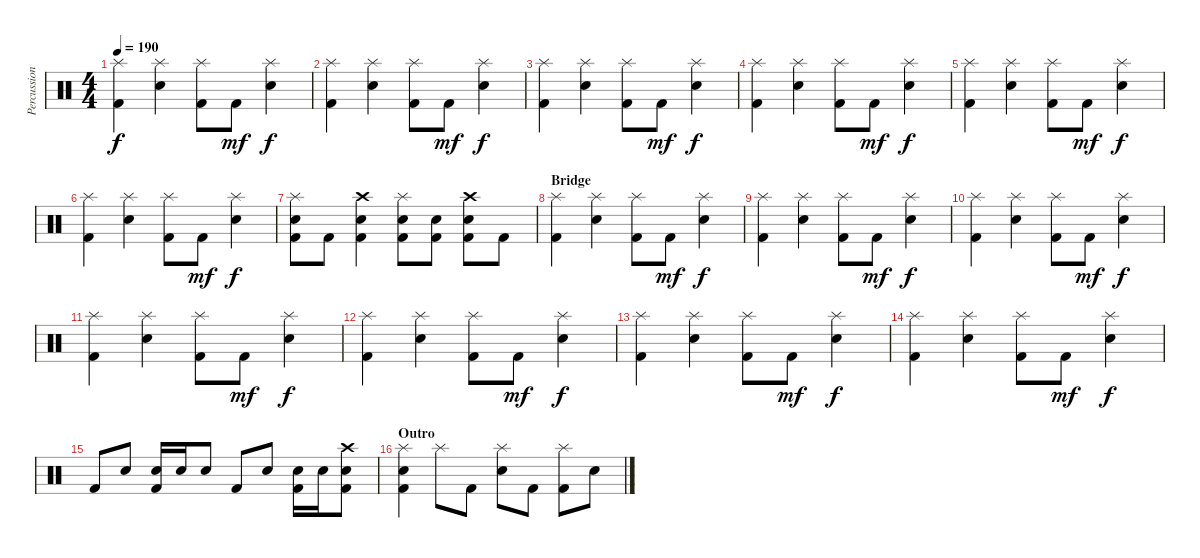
\track ("Percussion" "Percussion") {instrument percussion}
\staff {score}
\articulation defaults
\ts (4 4)
\tempo 190
\clef neutral
\ks c
("Splash (hit)" "Kick (hit) 2").4{dy f} ("Splash (hit)" "Electric Snare (hit)").4 ("Splash (hit)" "Kick (hit) 2").8 "Kick (hit) 2".8{dy mf} ("Splash (hit)" "Electric Snare (hit)").4{dy f} |
("Splash (hit)" "Kick (hit) 2").4 ("Splash (hit)" "Electric Snare (hit)").4 ("Splash (hit)" "Kick (hit) 2").8 "Kick (hit) 2".8{dy mf} ("Splash (hit)" "Electric Snare (hit)").4{dy f} |
("Splash (hit)" "Kick (hit) 2").4 ("Splash (hit)" "Electric Snare (hit)").4 ("Splash (hit)" "Kick (hit) 2").8 "Kick (hit) 2".8{dy mf} ("Splash (hit)" "Electric Snare (hit)").4{dy f} |
("Splash (hit)" "Kick (hit) 2").4 ("Splash (hit)" "Electric Snare (hit)").4 ("Splash (hit)" "Kick (hit) 2").8 "Kick (hit) 2".8{dy mf} ("Splash (hit)" "Electric Snare (hit)").4{dy f} |
("Splash (hit)" "Kick (hit) 2").4 ("Splash (hit)" "Electric Snare (hit)").4 ("Splash (hit)" "Kick (hit) 2").8 "Kick (hit) 2".8{dy mf} ("Splash (hit)" "Electric Snare (hit)").4{dy f} |
("Splash (hit)" "Kick (hit) 2").4 ("Splash (hit)" "Electric Snare (hit)").4 ("Splash (hit)" "Kick (hit) 2").8 "Kick (hit) 2".8{dy mf} ("Splash (hit)" "Electric Snare (hit)").4{dy f} |
("Splash (hit)" "Electric Snare (hit)" "Kick (hit) 2").8 "Kick (hit) 2".8 ("Crash high (hit)" "Electric Snare (hit)" "Kick (hit) 2").4 ("Splash (hit)" "Electric Snare (hit)" "Kick (hit) 2").8 ("Electric Snare (hit)" "Kick (hit) 2").8 ("Crash high (hit)" "Electric Snare (hit)" "Kick (hit) 2").8 "Kick (hit) 2".8 |
\section ("" "Bridge")
("Splash (hit)" "Kick (hit) 2").4 ("Splash (hit)" "Electric Snare (hit)").4 ("Splash (hit)" "Kick (hit) 2").8 "Kick (hit) 2".8{dy mf} ("Splash (hit)" "Electric Snare (hit)").4{dy f} |
("Splash (hit)" "Kick (hit) 2").4 ("Splash (hit)" "Electric Snare (hit)").4 ("Splash (hit)" "Kick (hit) 2").8 "Kick (hit) 2".8{dy mf} ("Splash (hit)" "Electric Snare (hit)").4{dy f} |
("Splash (hit)" "Kick (hit) 2").4 ("Splash (hit)" "Electric Snare (hit)").4 ("Splash (hit)" "Kick (hit) 2").8 "Kick (hit) 2".8{dy mf} ("Splash (hit)" "Electric Snare (hit)").4{dy f} |
("Splash (hit)" "Kick (hit) 2").4 ("Splash (hit)" "Electric Snare (hit)").4 ("Splash (hit)" "Kick (hit) 2").8 "Kick (hit) 2".8{dy mf} ("Splash (hit)" "Electric Snare (hit)").4{dy f} |
("Splash (hit)" "Kick (hit) 2").4 ("Splash (hit)" "Electric Snare (hit)").4 ("Splash (hit)" "Kick (hit) 2").8 "Kick (hit) 2".8{dy mf} ("Splash (hit)" "Electric Snare (hit)").4{dy f} |
("Splash (hit)" "Kick (hit) 2").4 ("Splash (hit)" "Electric Snare (hit)").4 ("Splash (hit)" "Kick (hit) 2").8 "Kick (hit) 2".8{dy mf} ("Splash (hit)" "Electric Snare (hit)").4{dy f} |
("Splash (hit)" "Kick (hit) 2").4 ("Splash (hit)" "Electric Snare (hit)").4 ("Splash (hit)" "Kick (hit) 2").8 "Kick (hit) 2".8{dy mf} ("Splash (hit)" "Electric Snare (hit)").4{dy f} |
"Kick (hit) 2".8 "Electric Snare (hit)".8 ("Electric Snare (hit)" "Kick (hit) 2").16 "Electric Snare (hit)".16 "Electric Snare (hit)".8 "Kick (hit) 2".8 "Electric Snare (hit)".8 ("Electric Snare (hit)" "Kick (hit) 2").16 "Electric Snare (hit)".16 ("Crash high (hit)" "Electric Snare (hit)" "Kick (hit) 2").8 |
\section ("" "Outro")
("Splash (hit)" "Electric Snare (hit)" "Kick (hit) 2").4 "Splash (hit)".8 "Kick (hit) 2".8 ("Splash (hit)" "Electric Snare (hit)").8 "Kick (hit) 2".8 ("Splash (hit)" "Kick (hit) 2").8 "Electric Snare (hit)".8
